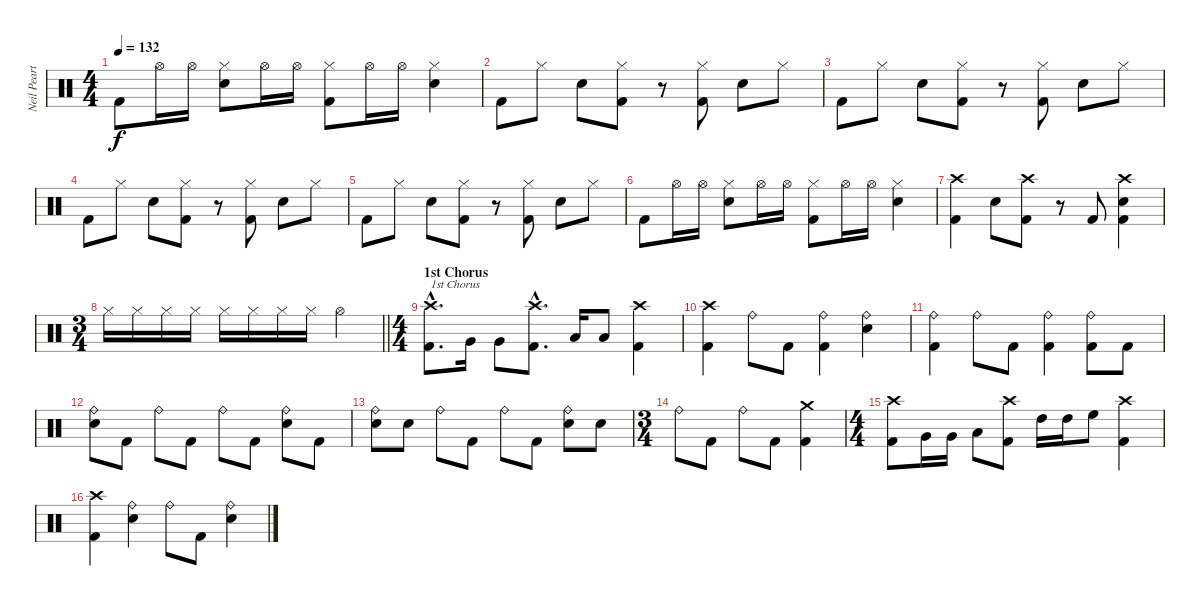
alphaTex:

\track ("Neil Peart" "Neil Peart") {instrument percussion}
\staff {score}
\articulation defaults
\ts (4 4)
\tempo 132
\clef neutral
\ks c "Kick (hit) 2".8{dy f} "Hi-Hat (open)".16 "Hi-Hat (open)".16
("Hi-Hat (closed)" "Electric Snare (hit)").8 "Hi-Hat (open)".16 "Hi-Hat (open)".16 ("Hi-Hat (closed)" "Kick (hit) 2").8 "Hi-Hat (open)".16 "Hi-Hat (open)".16 ("Hi-Hat (closed)" "Electric Snare (hit)").4 |
"Kick (hit) 2".8 "Hi-Hat (closed)".8 "Electric Snare (hit)".8 ("Hi-Hat (closed)" "Kick (hit) 2").8 r.8 ("Hi-Hat (closed)" "Kick (hit) 2").8 "Electric Snare (hit)".8 "Hi-Hat (closed)".8 |
"Kick (hit) 2".8 "Hi-Hat (closed)".8 "Electric Snare (hit)".8 ("Hi-Hat (closed)" "Kick (hit) 2").8 r.8 ("Hi-Hat (closed)" "Kick (hit) 2").8 "Electric Snare (hit)".8 "Hi-Hat (closed)".8 |
"Kick (hit) 2".8 "Hi-Hat (closed)".8 "Electric Snare (hit)".8 ("Hi-Hat (closed)" "Kick (hit) 2").8 r.8 ("Hi-Hat (closed)" "Kick (hit) 2").8 "Electric Snare (hit)".8 "Hi-Hat (closed)".8 |
"Kick (hit) 2".8 "Hi-Hat (closed)".8 "Electric Snare (hit)".8 ("Hi-Hat (closed)" "Kick (hit) 2").8 r.8 ("Hi-Hat (closed)" "Kick (hit) 2").8 "Electric Snare (hit)".8 "Hi-Hat (closed)".8 |
"Kick (hit) 2".8 "Hi-Hat (open)".16 "Hi-Hat (open)".16 ("Hi-Hat (closed)" "Electric Snare (hit)").8 "Hi-Hat (open)".16 "Hi-Hat (open)".16 ("Hi-Hat (closed)" "Kick (hit) 2").8 "Hi-Hat (open)".16 "Hi-Hat (open)".16 ("Hi-Hat (closed)" "Electric Snare (hit)").4 |
("Crash high (hit)" "Kick (hit) 2").4 "Electric Snare (hit)".8 ("Crash high (hit)" "Kick (hit) 2").8 r.8 "Kick (hit) 2".8 ("Crash high (hit)" "Electric Snare (hit)" "Kick (hit) 2").4 |
\ts (3 4)
\barLineRight lightlight "Hi-Hat (closed)".16 "Hi-Hat (closed)".16 "Hi-Hat (closed)".16 "Hi-Hat (closed)".16 "Hi-Hat (closed)".16 "Hi-Hat (closed)".16 "Hi-Hat (closed)".16 "Hi-Hat (closed)".16 "Hi-Hat (open)".4
|
\ts (4 4)
\section ("" "1st Chorus")
("Crash high (hit)"{hac} "Kick (hit) 2"{hac}).8{d txt "1st Chorus"} "Very Low Tom (hit)".16 "Very Low Tom (hit)".8 ("Crash high (hit)"{hac} "Kick (hit) 2"{hac}).8{d} "Low Tom (hit)".16 "Low Tom (hit)".8 ("Crash high (hit)" "Kick (hit) 2").4 |
("Crash high (hit)" "Kick (hit) 2").4 "Ride (bell)".8 "Kick (hit) 2".8 ("Ride (bell)" "Kick (hit) 2").4 ("Ride (bell)" "Electric Snare (hit)").4 |
("Ride (bell)" "Kick (hit) 2").4 "Ride (bell)".8 "Kick (hit) 2".8 ("Ride (bell)" "Kick (hit) 2").4 ("Ride (bell)" "Kick (hit) 2").8 "Kick (hit) 2".8 |
("Ride (bell)" "Electric Snare (hit)").8 "Kick (hit) 2".8 "Ride (bell)".8 "Kick (hit) 2".8 "Ride (bell)".8 "Kick (hit) 2".8 ("Ride (bell)" "Electric Snare (hit)").8 "Kick (hit) 2".8 |
("Ride (bell)" "Electric Snare (hit)").8 "Electric Snare (hit)".8 "Ride (bell)".8 "Kick (hit) 2".8 "Ride (bell)".8 "Kick (hit) 2".8 ("Ride (bell)" "Electric Snare (hit)").8 "Electric Snare (hit)".8 |
\ts (3 4)
"Ride (bell)".8 "Kick (hit) 2".8 "Ride (bell)".8 "Kick (hit) 2".8 ("Crash medium (hit)" "Kick (hit) 2").4 |
\ts (4 4)
("Crash high (hit)" "Kick (hit) 2").8 "Very Low Tom (hit)".16 "Very Low Tom (hit)".16 "Low Tom (hit)".8 ("Crash high (hit)" "Kick (hit) 2").8 "High Tom (hit)".16 "High Tom (hit)".16 "High Floor Tom (hit)".8 ("Crash high (hit)" "Kick (hit) 2").4 |
("Crash high (hit)" "Kick (hit) 2").4 ("Ride (bell)" "Electric Snare (hit)").4 "Ride (bell)".8 "Kick (hit) 2".8 ("Ride (bell)" "Electric Snare (hit)").4
